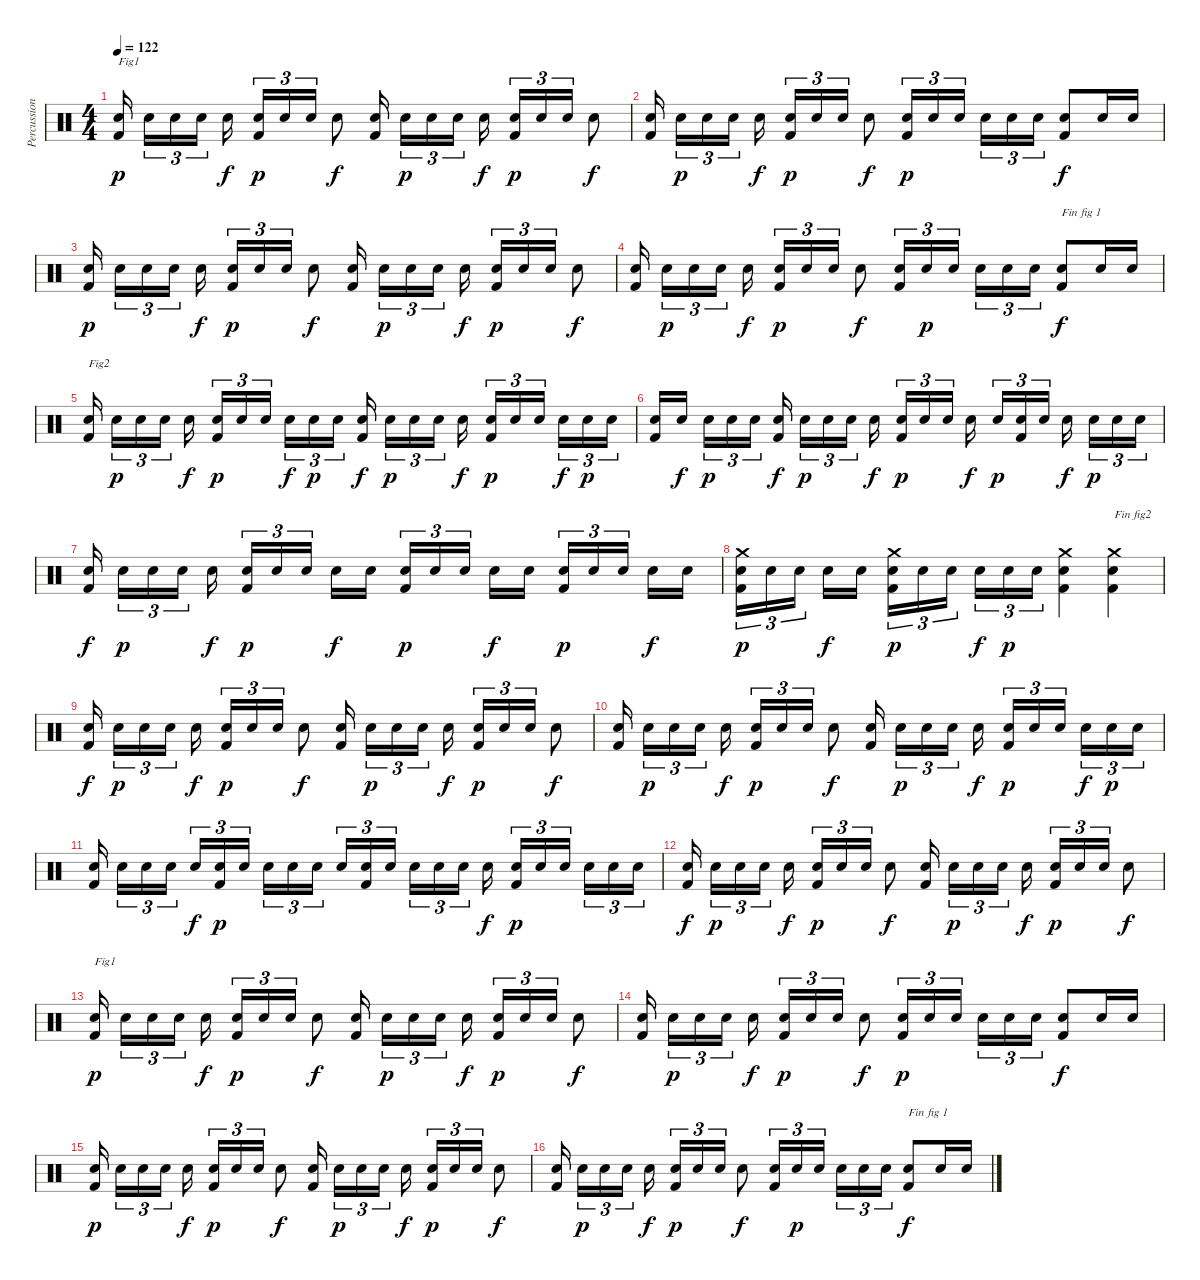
\track ("Percussions" "Percussion") {instrument percussion}
\staff {score}
\articulation defaults
\ts (4 4)
\tempo 122
\clef neutral
\ks c
("Kick (hit) 2" "Snare (hit) 2").16{txt "Fig1" dy p} "Snare (hit) 2".16{tu (3 2)} "Snare (hit) 2".16{tu (3 2)} "Snare (hit) 2".16{tu (3 2)} "Snare (hit) 2".16{dy f} ("Kick (hit) 2" "Snare (hit) 2").16{tu (3 2) dy p} "Snare (hit) 2".16{tu (3 2)} "Snare (hit) 2".16{tu (3 2)} "Snare (hit) 2".8{dy f} ("Kick (hit) 2" "Snare (hit) 2").16 "Snare (hit) 2".16{tu (3 2) dy p} "Snare (hit) 2".16{tu (3 2)} "Snare (hit) 2".16{tu (3 2)} "Snare (hit) 2".16{dy f} ("Kick (hit) 2" "Snare (hit) 2").16{tu (3 2) dy p} "Snare (hit) 2".16{tu (3 2)} "Snare (hit) 2".16{tu (3 2)} "Snare (hit) 2".8{dy f} |
("Kick (hit) 2" "Snare (hit) 2").16 "Snare (hit) 2".16{tu (3 2) dy p} "Snare (hit) 2".16{tu (3 2)} "Snare (hit) 2".16{tu (3 2)} "Snare (hit) 2".16{dy f} ("Kick (hit) 2" "Snare (hit) 2").16{tu (3 2) dy p} "Snare (hit) 2".16{tu (3 2)} "Snare (hit) 2".16{tu (3 2)} "Snare (hit) 2".8{dy f} ("Kick (hit) 2" "Snare (hit) 2").16{tu (3 2) dy p} "Snare (hit) 2".16{tu (3 2)} "Snare (hit) 2".16{tu (3 2)} "Snare (hit) 2".16{tu (3 2)} "Snare (hit) 2".16{tu (3 2)} "Snare (hit) 2".16{tu (3 2)} ("Kick (hit) 2" "Snare (hit) 2").8{dy f} "Snare (hit) 2".16 "Snare (hit) 2".16 |
("Kick (hit) 2" "Snare (hit) 2").16{dy p} "Snare (hit) 2".16{tu (3 2)} "Snare (hit) 2".16{tu (3 2)} "Snare (hit) 2".16{tu (3 2)} "Snare (hit) 2".16{dy f} ("Kick (hit) 2" "Snare (hit) 2").16{tu (3 2) dy p} "Snare (hit) 2".16{tu (3 2)} "Snare (hit) 2".16{tu (3 2)} "Snare (hit) 2".8{dy f} ("Kick (hit) 2" "Snare (hit) 2").16 "Snare (hit) 2".16{tu (3 2) dy p} "Snare (hit) 2".16{tu (3 2)} "Snare (hit) 2".16{tu (3 2)} "Snare (hit) 2".16{dy f} ("Kick (hit) 2" "Snare (hit) 2").16{tu (3 2) dy p} "Snare (hit) 2".16{tu (3 2)} "Snare (hit) 2".16{tu (3 2)} "Snare (hit) 2".8{dy f} |
("Kick (hit) 2" "Snare (hit) 2").16 "Snare (hit) 2".16{tu (3 2) dy p} "Snare (hit) 2".16{tu (3 2)} "Snare (hit) 2".16{tu (3 2)} "Snare (hit) 2".16{dy f} ("Kick (hit) 2" "Snare (hit) 2").16{tu (3 2) dy p} "Snare (hit) 2".16{tu (3 2)} "Snare (hit) 2".16{tu (3 2)} "Snare (hit) 2".8{dy f} ("Kick (hit) 2" "Snare (hit) 2").16{tu (3 2)} "Snare (hit) 2".16{tu (3 2) dy p} "Snare (hit) 2".16{tu (3 2)} "Snare (hit) 2".16{tu (3 2)} "Snare (hit) 2".16{tu (3 2)} "Snare (hit) 2".16{tu (3 2)} ("Kick (hit) 2" "Snare (hit) 2").8{txt "Fin fig 1" dy f} "Snare (hit) 2".16 "Snare (hit) 2".16 |
("Kick (hit) 2" "Snare (hit) 2").16{txt "Fig2"} "Snare (hit) 2".16{tu (3 2) dy p} "Snare (hit) 2".16{tu (3 2)} "Snare (hit) 2".16{tu (3 2)} "Snare (hit) 2".16{dy f} ("Kick (hit) 2" "Snare (hit) 2").16{tu (3 2) dy p} "Snare (hit) 2".16{tu (3 2)} "Snare (hit) 2".16{tu (3 2)} "Snare (hit) 2".16{tu (3 2) dy f} "Snare (hit) 2".16{tu (3 2) dy p} "Snare (hit) 2".16{tu (3 2)} ("Kick (hit) 2" "Snare (hit) 2").16{dy f} "Snare (hit) 2".16{tu (3 2) dy p} "Snare (hit) 2".16{tu (3 2)} "Snare (hit) 2".16{tu (3 2)} "Snare (hit) 2".16{dy f} ("Kick (hit) 2" "Snare (hit) 2").16{tu (3 2) dy p} "Snare (hit) 2".16{tu (3 2)} "Snare (hit) 2".16{tu (3 2)} "Snare (hit) 2".16{tu (3 2) dy f} "Snare (hit) 2".16{tu (3 2) dy p} "Snare (hit) 2".16{tu (3 2)} |
("Kick (hit) 2" "Snare (hit) 2").16 "Snare (hit) 2".16{dy f} "Snare (hit) 2".16{tu (3 2) dy p} "Snare (hit) 2".16{tu (3 2)} "Snare (hit) 2".16{tu (3 2)} ("Kick (hit) 2" "Snare (hit) 2").16{dy f} "Snare (hit) 2".16{tu (3 2) dy p} "Snare (hit) 2".16{tu (3 2)} "Snare (hit) 2".16{tu (3 2)} "Snare (hit) 2".16{dy f} ("Kick (hit) 2" "Snare (hit) 2").16{tu (3 2) dy p} "Snare (hit) 2".16{tu (3 2)} "Snare (hit) 2".16{tu (3 2)} "Snare (hit) 2".16{dy f} "Snare (hit) 2".16{tu (3 2) dy p} ("Kick (hit) 2" "Snare (hit) 2").16{tu (3 2)} "Snare (hit) 2".16{tu (3 2)} "Snare (hit) 2".16{dy f} "Snare (hit) 2".16{tu (3 2) dy p} "Snare (hit) 2".16{tu (3 2)} "Snare (hit) 2".16{tu (3 2)} |
("Kick (hit) 2" "Snare (hit) 2").16{dy f} "Snare (hit) 2".16{tu (3 2) dy p} "Snare (hit) 2".16{tu (3 2)} "Snare (hit) 2".16{tu (3 2)} "Snare (hit) 2".16{dy f} ("Kick (hit) 2" "Snare (hit) 2").16{tu (3 2) dy p} "Snare (hit) 2".16{tu (3 2)} "Snare (hit) 2".16{tu (3 2)} "Snare (hit) 2".16{dy f} "Snare (hit) 2".16 ("Kick (hit) 2" "Snare (hit) 2").16{tu (3 2) dy p} "Snare (hit) 2".16{tu (3 2)} "Snare (hit) 2".16{tu (3 2)} "Snare (hit) 2".16{dy f} "Snare (hit) 2".16 ("Kick (hit) 2" "Snare (hit) 2").16{tu (3 2) dy p} "Snare (hit) 2".16{tu (3 2)} "Snare (hit) 2".16{tu (3 2)} "Snare (hit) 2".16{dy f} "Snare (hit) 2".16 |
("Kick (hit) 2" "Snare (hit) 2" "Crash medium (hit)").16{tu (3 2) dy p} "Snare (hit) 2".16{tu (3 2)} "Snare (hit) 2".16{tu (3 2)} "Snare (hit) 2".16{dy f} "Snare (hit) 2".16 ("Kick (hit) 2" "Snare (hit) 2" "Crash medium (hit)").16{tu (3 2) dy p} "Snare (hit) 2".16{tu (3 2)} "Snare (hit) 2".16{tu (3 2)} "Snare (hit) 2".16{tu (3 2) dy f} "Snare (hit) 2".16{tu (3 2) dy p} "Snare (hit) 2".16{tu (3 2)} ("Kick (hit) 2" "Snare (hit) 2" "Crash medium (hit)").4 ("Kick (hit) 2" "Snare (hit) 2" "Crash medium (hit)").4{txt "Fin fig2"} |
("Kick (hit) 2" "Snare (hit) 2").16{dy f} "Snare (hit) 2".16{tu (3 2) dy p} "Snare (hit) 2".16{tu (3 2)} "Snare (hit) 2".16{tu (3 2)} "Snare (hit) 2".16{dy f} ("Kick (hit) 2" "Snare (hit) 2").16{tu (3 2) dy p} "Snare (hit) 2".16{tu (3 2)} "Snare (hit) 2".16{tu (3 2)} "Snare (hit) 2".8{dy f} ("Kick (hit) 2" "Snare (hit) 2").16 "Snare (hit) 2".16{tu (3 2) dy p} "Snare (hit) 2".16{tu (3 2)} "Snare (hit) 2".16{tu (3 2)} "Snare (hit) 2".16{dy f} ("Kick (hit) 2" "Snare (hit) 2").16{tu (3 2) dy p} "Snare (hit) 2".16{tu (3 2)} "Snare (hit) 2".16{tu (3 2)} "Snare (hit) 2".8{dy f} |
("Kick (hit) 2" "Snare (hit) 2").16 "Snare (hit) 2".16{tu (3 2) dy p} "Snare (hit) 2".16{tu (3 2)} "Snare (hit) 2".16{tu (3 2)} "Snare (hit) 2".16{dy f} ("Kick (hit) 2" "Snare (hit) 2").16{tu (3 2) dy p} "Snare (hit) 2".16{tu (3 2)} "Snare (hit) 2".16{tu (3 2)} "Snare (hit) 2".8{dy f} ("Kick (hit) 2" "Snare (hit) 2").16 "Snare (hit) 2".16{tu (3 2) dy p} "Snare (hit) 2".16{tu (3 2)} "Snare (hit) 2".16{tu (3 2)} "Snare (hit) 2".16{dy f} ("Kick (hit) 2" "Snare (hit) 2").16{tu (3 2) dy p} "Snare (hit) 2".16{tu (3 2)} "Snare (hit) 2".16{tu (3 2)} "Snare (hit) 2".16{tu (3 2) dy f} "Snare (hit) 2".16{tu (3 2) dy p} "Snare (hit) 2".16{tu (3 2)} |
("Kick (hit) 2" "Snare (hit) 2").16 "Snare (hit) 2".16{tu (3 2)} "Snare (hit) 2".16{tu (3 2)} "Snare (hit) 2".16{tu (3 2)} "Snare (hit) 2".16{tu (3 2) dy f} ("Kick (hit) 2" "Snare (hit) 2").16{tu (3 2) dy p} "Snare (hit) 2".16{tu (3 2)} "Snare (hit) 2".16{tu (3 2)} "Snare (hit) 2".16{tu (3 2)} "Snare (hit) 2".16{tu (3 2)} "Snare (hit) 2".16{tu (3 2)} ("Kick (hit) 2" "Snare (hit) 2").16{tu (3 2)} "Snare (hit) 2".16{tu (3 2)} "Snare (hit) 2".16{tu (3 2)} "Snare (hit) 2".16{tu (3 2)} "Snare (hit) 2".16{tu (3 2)} "Snare (hit) 2".16{dy f} ("Kick (hit) 2" "Snare (hit) 2").16{tu (3 2) dy p} "Snare (hit) 2".16{tu (3 2)} "Snare (hit) 2".16{tu (3 2)} "Snare (hit) 2".16{tu (3 2)} "Snare (hit) 2".16{tu (3 2)} "Snare (hit) 2".16{tu (3 2)} |
("Kick (hit) 2" "Snare (hit) 2").16{dy f} "Snare (hit) 2".16{tu (3 2) dy p} "Snare (hit) 2".16{tu (3 2)} "Snare (hit) 2".16{tu (3 2)} "Snare (hit) 2".16{dy f} ("Kick (hit) 2" "Snare (hit) 2").16{tu (3 2) dy p} "Snare (hit) 2".16{tu (3 2)} "Snare (hit) 2".16{tu (3 2)} "Snare (hit) 2".8{dy f} ("Kick (hit) 2" "Snare (hit) 2").16 "Snare (hit) 2".16{tu (3 2) dy p} "Snare (hit) 2".16{tu (3 2)} "Snare (hit) 2".16{tu (3 2)} "Snare (hit) 2".16{dy f} ("Kick (hit) 2" "Snare (hit) 2").16{tu (3 2) dy p} "Snare (hit) 2".16{tu (3 2)} "Snare (hit) 2".16{tu (3 2)} "Snare (hit) 2".8{dy f} |
("Kick (hit) 2" "Snare (hit) 2").16{txt "Fig1" dy p} "Snare (hit) 2".16{tu (3 2)} "Snare (hit) 2".16{tu (3 2)} "Snare (hit) 2".16{tu (3 2)} "Snare (hit) 2".16{dy f} ("Kick (hit) 2" "Snare (hit) 2").16{tu (3 2) dy p} "Snare (hit) 2".16{tu (3 2)} "Snare (hit) 2".16{tu (3 2)} "Snare (hit) 2".8{dy f} ("Kick (hit) 2" "Snare (hit) 2").16 "Snare (hit) 2".16{tu (3 2) dy p} "Snare (hit) 2".16{tu (3 2)} "Snare (hit) 2".16{tu (3 2)} "Snare (hit) 2".16{dy f} ("Kick (hit) 2" "Snare (hit) 2").16{tu (3 2) dy p} "Snare (hit) 2".16{tu (3 2)} "Snare (hit) 2".16{tu (3 2)} "Snare (hit) 2".8{dy f} |
("Kick (hit) 2" "Snare (hit) 2").16 "Snare (hit) 2".16{tu (3 2) dy p} "Snare (hit) 2".16{tu (3 2)} "Snare (hit) 2".16{tu (3 2)} "Snare (hit) 2".16{dy f} ("Kick (hit) 2" "Snare (hit) 2").16{tu (3 2) dy p} "Snare (hit) 2".16{tu (3 2)} "Snare (hit) 2".16{tu (3 2)} "Snare (hit) 2".8{dy f} ("Kick (hit) 2" "Snare (hit) 2").16{tu (3 2) dy p} "Snare (hit) 2".16{tu (3 2)} "Snare (hit) 2".16{tu (3 2)} "Snare (hit) 2".16{tu (3 2)} "Snare (hit) 2".16{tu (3 2)} "Snare (hit) 2".16{tu (3 2)} ("Kick (hit) 2" "Snare (hit) 2").8{dy f} "Snare (hit) 2".16 "Snare (hit) 2".16 |
("Kick (hit) 2" "Snare (hit) 2").16{dy p} "Snare (hit) 2".16{tu (3 2)} "Snare (hit) 2".16{tu (3 2)} "Snare (hit) 2".16{tu (3 2)} "Snare (hit) 2".16{dy f} ("Kick (hit) 2" "Snare (hit) 2").16{tu (3 2) dy p} "Snare (hit) 2".16{tu (3 2)} "Snare (hit) 2".16{tu (3 2)} "Snare (hit) 2".8{dy f} ("Kick (hit) 2" "Snare (hit) 2").16 "Snare (hit) 2".16{tu (3 2) dy p} "Snare (hit) 2".16{tu (3 2)} "Snare (hit) 2".16{tu (3 2)} "Snare (hit) 2".16{dy f} ("Kick (hit) 2" "Snare (hit) 2").16{tu (3 2) dy p} "Snare (hit) 2".16{tu (3 2)} "Snare (hit) 2".16{tu (3 2)} "Snare (hit) 2".8{dy f} |
("Kick (hit) 2" "Snare (hit) 2").16 "Snare (hit) 2".16{tu (3 2) dy p} "Snare (hit) 2".16{tu (3 2)} "Snare (hit) 2".16{tu (3 2)} "Snare (hit) 2".16{dy f} ("Kick (hit) 2" "Snare (hit) 2").16{tu (3 2) dy p} "Snare (hit) 2".16{tu (3 2)} "Snare (hit) 2".16{tu (3 2)} "Snare (hit) 2".8{dy f} ("Kick (hit) 2" "Snare (hit) 2").16{tu (3 2)} "Snare (hit) 2".16{tu (3 2) dy p} "Snare (hit) 2".16{tu (3 2)} "Snare (hit) 2".16{tu (3 2)} "Snare (hit) 2".16{tu (3 2)} "Snare (hit) 2".16{tu (3 2)} ("Kick (hit) 2" "Snare (hit) 2").8{txt "Fin fig 1" dy f} "Snare (hit) 2".16 "Snare (hit) 2".16
